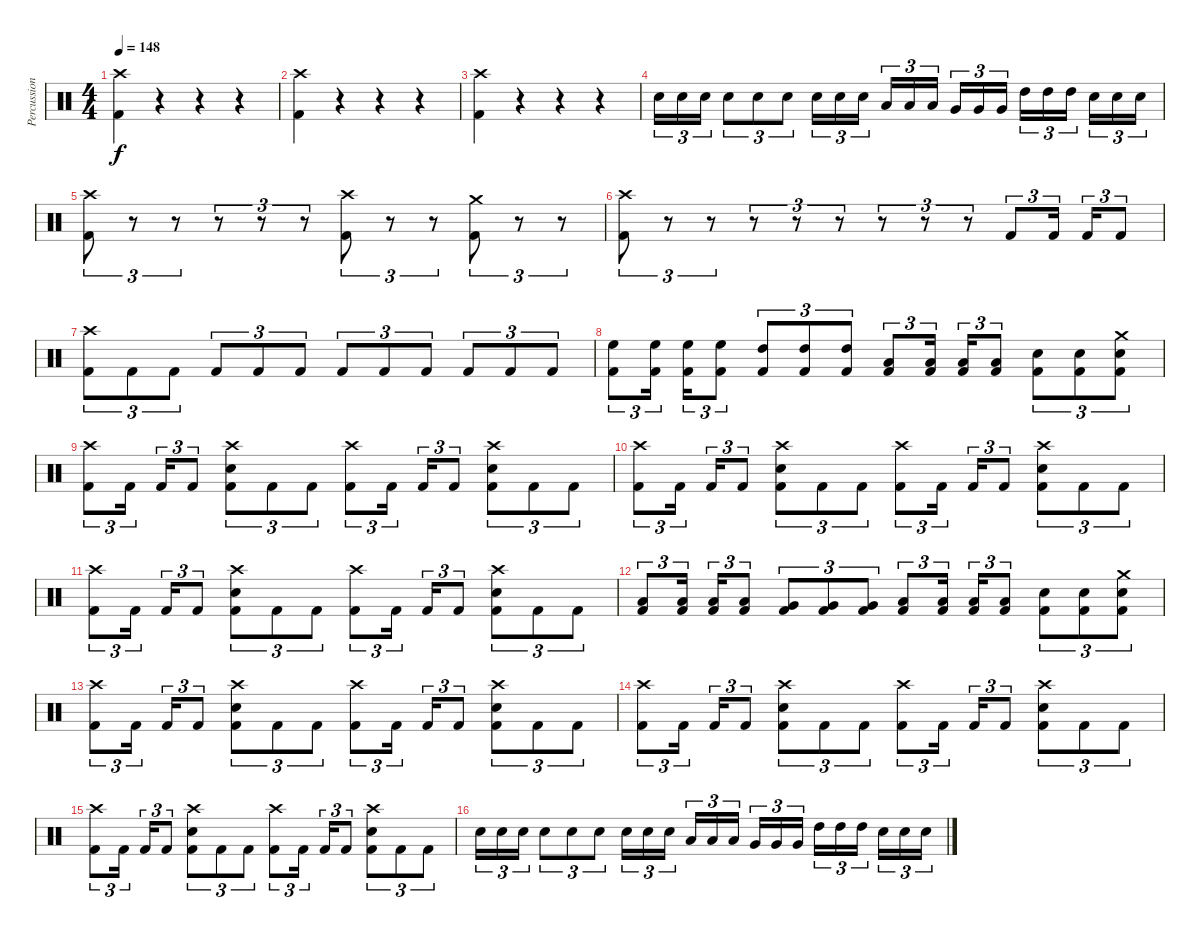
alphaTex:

\track ("Percussion" "Percussion") {instrument percussion}
\staff {score}
\articulation defaults
\ts (4 4)
\tempo 148
\clef neutral
\ks c
("Crash high (hit)" "Kick (hit) 2").4{dy f} r.4 r.4 r.4 |
("Crash high (hit)" "Kick (hit) 2").4 r.4 r.4 r.4 |
("Crash high (hit)" "Kick (hit) 2").4 r.4 r.4 r.4 |
"Electric Snare (hit)".16{tu (3 2)} "Electric Snare (hit)".16{tu (3 2)} "Electric Snare (hit)".16{tu (3 2)} "Electric Snare (hit)".8{tu (3 2)} "Electric Snare (hit)".8{tu (3 2)} "Electric Snare (hit)".8{tu (3 2)} "Electric Snare (hit)".16{tu (3 2)} "Electric Snare (hit)".16{tu (3 2)} "Electric Snare (hit)".16{tu (3 2)} "Low Tom (hit)".16{tu (3 2)} "Low Tom (hit)".16{tu (3 2)} "Low Tom (hit)".16{tu (3 2)} "Very Low Tom (hit)".16{tu (3 2)} "Very Low Tom (hit)".16{tu (3 2)} "Very Low Tom (hit)".16{tu (3 2)} "High Tom (hit)".16{tu (3 2)} "High Tom (hit)".16{tu (3 2)} "High Tom (hit)".16{tu (3 2)} "Electric Snare (hit)".16{tu (3 2)} "Electric Snare (hit)".16{tu (3 2)} "Electric Snare (hit)".16{tu (3 2)} |
("Crash high (hit)" "Kick (hit) 2").8{tu (3 2)} r.8{tu (3 2)} r.8{tu (3 2)} r.8{tu (3 2)} r.8{tu (3 2)} r.8{tu (3 2)} ("Crash high (hit)" "Kick (hit) 2").8{tu (3 2)} r.8{tu (3 2)} r.8{tu (3 2)} ("Crash medium (hit)" "Kick (hit) 2").8{tu (3 2)} r.8{tu (3 2)} r.8{tu (3 2)} |
("Crash high (hit)" "Kick (hit) 2").8{tu (3 2)} r.8{tu (3 2)} r.8{tu (3 2)} r.8{tu (3 2)} r.8{tu (3 2)} r.8{tu (3 2)} r.8{tu (3 2)} r.8{tu (3 2)} r.8{tu (3 2)} "Kick (hit) 2".8{tu (3 2)} "Kick (hit) 2".16{tu (3 2)} "Kick (hit) 2".16{tu (3 2)} "Kick (hit) 2".8{tu (3 2)} |
("Crash high (hit)" "Kick (hit) 2").8{tu (3 2)} "Kick (hit) 2".8{tu (3 2)} "Kick (hit) 2".8{tu (3 2)} "Kick (hit) 2".8{tu (3 2)} "Kick (hit) 2".8{tu (3 2)} "Kick (hit) 2".8{tu (3 2)} "Kick (hit) 2".8{tu (3 2)} "Kick (hit) 2".8{tu (3 2)} "Kick (hit) 2".8{tu (3 2)} "Kick (hit) 2".8{tu (3 2)} "Kick (hit) 2".8{tu (3 2)} "Kick (hit) 2".8{tu (3 2)} |
("High Floor Tom (hit)" "Kick (hit) 2").8{tu (3 2)} ("High Floor Tom (hit)" "Kick (hit) 2").16{tu (3 2)} ("High Floor Tom (hit)" "Kick (hit) 2").16{tu (3 2)} ("High Floor Tom (hit)" "Kick (hit) 2").8{tu (3 2)} ("High Tom (hit)" "Kick (hit) 2").8{tu (3 2)} ("High Tom (hit)" "Kick (hit) 2").8{tu (3 2)} ("High Tom (hit)" "Kick (hit) 2").8{tu (3 2)} ("Low Tom (hit)" "Kick (hit) 2").8{tu (3 2)} ("Low Tom (hit)" "Kick (hit) 2").16{tu (3 2)} ("Low Tom (hit)" "Kick (hit) 2").16{tu (3 2)} ("Low Tom (hit)" "Kick (hit) 2").8{tu (3 2)} ("Electric Snare (hit)" "Kick (hit) 2").8{tu (3 2)} ("Electric Snare (hit)" "Kick (hit) 2").8{tu (3 2)} ("Crash medium (hit)" "Electric Snare (hit)" "Kick (hit) 2").8{tu (3 2)} |
("Crash high (hit)" "Kick (hit) 2").8{tu (3 2)} "Kick (hit) 2".16{tu (3 2)} "Kick (hit) 2".16{tu (3 2)} "Kick (hit) 2".8{tu (3 2)} ("Crash high (hit)" "Electric Snare (hit)" "Kick (hit) 2").8{tu (3 2)} "Kick (hit) 2".8{tu (3 2)} "Kick (hit) 2".8{tu (3 2)} ("Crash high (hit)" "Kick (hit) 2").8{tu (3 2)} "Kick (hit) 2".16{tu (3 2)} "Kick (hit) 2".16{tu (3 2)} "Kick (hit) 2".8{tu (3 2)} ("Crash high (hit)" "Electric Snare (hit)" "Kick (hit) 2").8{tu (3 2)} "Kick (hit) 2".8{tu (3 2)} "Kick (hit) 2".8{tu (3 2)} |
("Crash high (hit)" "Kick (hit) 2").8{tu (3 2)} "Kick (hit) 2".16{tu (3 2)} "Kick (hit) 2".16{tu (3 2)} "Kick (hit) 2".8{tu (3 2)} ("Crash high (hit)" "Electric Snare (hit)" "Kick (hit) 2").8{tu (3 2)} "Kick (hit) 2".8{tu (3 2)} "Kick (hit) 2".8{tu (3 2)} ("Crash high (hit)" "Kick (hit) 2").8{tu (3 2)} "Kick (hit) 2".16{tu (3 2)} "Kick (hit) 2".16{tu (3 2)} "Kick (hit) 2".8{tu (3 2)} ("Crash high (hit)" "Electric Snare (hit)" "Kick (hit) 2").8{tu (3 2)} "Kick (hit) 2".8{tu (3 2)} "Kick (hit) 2".8{tu (3 2)} |
("Crash high (hit)" "Kick (hit) 2").8{tu (3 2)} "Kick (hit) 2".16{tu (3 2)} "Kick (hit) 2".16{tu (3 2)} "Kick (hit) 2".8{tu (3 2)} ("Crash high (hit)" "Electric Snare (hit)" "Kick (hit) 2").8{tu (3 2)} "Kick (hit) 2".8{tu (3 2)} "Kick (hit) 2".8{tu (3 2)} ("Crash high (hit)" "Kick (hit) 2").8{tu (3 2)} "Kick (hit) 2".16{tu (3 2)} "Kick (hit) 2".16{tu (3 2)} "Kick (hit) 2".8{tu (3 2)} ("Crash high (hit)" "Electric Snare (hit)" "Kick (hit) 2").8{tu (3 2)} "Kick (hit) 2".8{tu (3 2)} "Kick (hit) 2".8{tu (3 2)} |
("Low Tom (hit)" "Kick (hit) 2").8{tu (3 2)} ("Low Tom (hit)" "Kick (hit) 2").16{tu (3 2)} ("Low Tom (hit)" "Kick (hit) 2").16{tu (3 2)} ("Low Tom (hit)" "Kick (hit) 2").8{tu (3 2)} ("Very Low Tom (hit)" "Kick (hit) 2").8{tu (3 2)} ("Very Low Tom (hit)" "Kick (hit) 2").8{tu (3 2)} ("Very Low Tom (hit)" "Kick (hit) 2").8{tu (3 2)} ("Low Floor Tom (hit)" "Kick (hit) 2").8{tu (3 2)} ("Low Floor Tom (hit)" "Kick (hit) 2").16{tu (3 2)} ("Low Floor Tom (hit)" "Kick (hit) 2").16{tu (3 2)} ("Low Floor Tom (hit)" "Kick (hit) 2").8{tu (3 2)} ("Electric Snare (hit)" "Kick (hit) 2").8{tu (3 2)} ("Electric Snare (hit)" "Kick (hit) 2").8{tu (3 2)} ("Crash medium (hit)" "Electric Snare (hit)" "Kick (hit) 2").8{tu (3 2)} |
("Crash high (hit)" "Kick (hit) 2").8{tu (3 2)} "Kick (hit) 2".16{tu (3 2)} "Kick (hit) 2".16{tu (3 2)} "Kick (hit) 2".8{tu (3 2)} ("Crash high (hit)" "Electric Snare (hit)" "Kick (hit) 2").8{tu (3 2)} "Kick (hit) 2".8{tu (3 2)} "Kick (hit) 2".8{tu (3 2)} ("Crash high (hit)" "Kick (hit) 2").8{tu (3 2)} "Kick (hit) 2".16{tu (3 2)} "Kick (hit) 2".16{tu (3 2)} "Kick (hit) 2".8{tu (3 2)} ("Crash high (hit)" "Electric Snare (hit)" "Kick (hit) 2").8{tu (3 2)} "Kick (hit) 2".8{tu (3 2)} "Kick (hit) 2".8{tu (3 2)} |
("Crash high (hit)" "Kick (hit) 2").8{tu (3 2)} "Kick (hit) 2".16{tu (3 2)} "Kick (hit) 2".16{tu (3 2)} "Kick (hit) 2".8{tu (3 2)} ("Crash high (hit)" "Electric Snare (hit)" "Kick (hit) 2").8{tu (3 2)} "Kick (hit) 2".8{tu (3 2)} "Kick (hit) 2".8{tu (3 2)} ("Crash high (hit)" "Kick (hit) 2").8{tu (3 2)} "Kick (hit) 2".16{tu (3 2)} "Kick (hit) 2".16{tu (3 2)} "Kick (hit) 2".8{tu (3 2)} ("Crash high (hit)" "Electric Snare (hit)" "Kick (hit) 2").8{tu (3 2)} "Kick (hit) 2".8{tu (3 2)} "Kick (hit) 2".8{tu (3 2)} |
("Crash high (hit)" "Kick (hit) 2").8{tu (3 2)} "Kick (hit) 2".16{tu (3 2)} "Kick (hit) 2".16{tu (3 2)} "Kick (hit) 2".8{tu (3 2)} ("Crash high (hit)" "Electric Snare (hit)" "Kick (hit) 2").8{tu (3 2)} "Kick (hit) 2".8{tu (3 2)} "Kick (hit) 2".8{tu (3 2)} ("Crash high (hit)" "Kick (hit) 2").8{tu (3 2)} "Kick (hit) 2".16{tu (3 2)} "Kick (hit) 2".16{tu (3 2)} "Kick (hit) 2".8{tu (3 2)} ("Crash high (hit)" "Electric Snare (hit)" "Kick (hit) 2").8{tu (3 2)} "Kick (hit) 2".8{tu (3 2)} "Kick (hit) 2".8{tu (3 2)} |
"Electric Snare (hit)".16{tu (3 2)} "Electric Snare (hit)".16{tu (3 2)} "Electric Snare (hit)".16{tu (3 2)} "Electric Snare (hit)".8{tu (3 2)} "Electric Snare (hit)".8{tu (3 2)} "Electric Snare (hit)".8{tu (3 2)} "Electric Snare (hit)".16{tu (3 2)} "Electric Snare (hit)".16{tu (3 2)} "Electric Snare (hit)".16{tu (3 2)} "Low Tom (hit)".16{tu (3 2)} "Low Tom (hit)".16{tu (3 2)} "Low Tom (hit)".16{tu (3 2)} "Very Low Tom (hit)".16{tu (3 2)} "Very Low Tom (hit)".16{tu (3 2)} "Very Low Tom (hit)".16{tu (3 2)} "High Tom (hit)".16{tu (3 2)} "High Tom (hit)".16{tu (3 2)} "High Tom (hit)".16{tu (3 2)} "Electric Snare (hit)".16{tu (3 2)} "Electric Snare (hit)".16{tu (3 2)} "Electric Snare (hit)".16{tu (3 2)}
